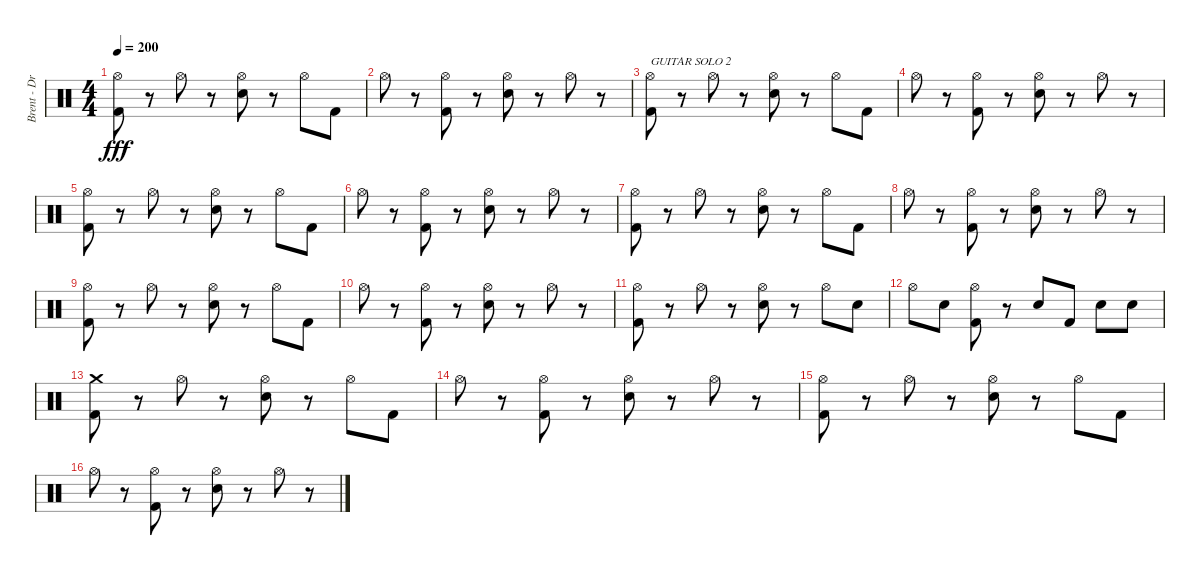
\track ("Brent - Drums" "Brent - Dr") {instrument percussion}
\staff {score}
\articulation defaults
\ts (4 4)
\tempo 200
\clef neutral
\ks c
("Hi-Hat (open)" "Kick (hit) 2").8{dy fff} r.8 "Hi-Hat (open)".8 r.8 ("Hi-Hat (open)" "Snare (hit) 2").8 r.8 "Hi-Hat (open)".8 "Kick (hit) 2".8 |
"Hi-Hat (open)".8 r.8 ("Hi-Hat (open)" "Kick (hit) 2").8 r.8 ("Hi-Hat (open)" "Snare (hit) 2").8 r.8 "Hi-Hat (open)".8 r.8 |
("Hi-Hat (open)" "Kick (hit) 2").8{txt "GUITAR SOLO 2"} r.8 "Hi-Hat (open)".8 r.8 ("Hi-Hat (open)" "Snare (hit) 2").8 r.8 "Hi-Hat (open)".8 "Kick (hit) 2".8 |
"Hi-Hat (open)".8 r.8 ("Hi-Hat (open)" "Kick (hit) 2").8 r.8 ("Hi-Hat (open)" "Snare (hit) 2").8 r.8 "Hi-Hat (open)".8 r.8 |
("Hi-Hat (open)" "Kick (hit) 2").8 r.8 "Hi-Hat (open)".8 r.8 ("Hi-Hat (open)" "Snare (hit) 2").8 r.8 "Hi-Hat (open)".8 "Kick (hit) 2".8 |
"Hi-Hat (open)".8 r.8 ("Hi-Hat (open)" "Kick (hit) 2").8 r.8 ("Hi-Hat (open)" "Snare (hit) 2").8 r.8 "Hi-Hat (open)".8 r.8 |
("Hi-Hat (open)" "Kick (hit) 2").8 r.8 "Hi-Hat (open)".8 r.8 ("Hi-Hat (open)" "Snare (hit) 2").8 r.8 "Hi-Hat (open)".8 "Kick (hit) 2".8 |
"Hi-Hat (open)".8 r.8 ("Hi-Hat (open)" "Kick (hit) 2").8 r.8 ("Hi-Hat (open)" "Snare (hit) 2").8 r.8 "Hi-Hat (open)".8 r.8 |
("Hi-Hat (open)" "Kick (hit) 2").8 r.8 "Hi-Hat (open)".8 r.8 ("Hi-Hat (open)" "Snare (hit) 2").8 r.8 "Hi-Hat (open)".8 "Kick (hit) 2".8 |
"Hi-Hat (open)".8 r.8 ("Hi-Hat (open)" "Kick (hit) 2").8 r.8 ("Hi-Hat (open)" "Snare (hit) 2").8 r.8 "Hi-Hat (open)".8 r.8 |
("Hi-Hat (open)" "Kick (hit) 2").8 r.8 "Hi-Hat (open)".8 r.8 ("Hi-Hat (open)" "Snare (hit) 2").8 r.8 "Hi-Hat (open)".8 "Snare (hit) 2".8 |
"Hi-Hat (open)".8 "Snare (hit) 2".8 ("Hi-Hat (open)" "Kick (hit) 2").8 r.8 "Snare (hit) 2".8 "Kick (hit) 2".8 "Snare (hit) 2".8 "Snare (hit) 2".8 |
("Crash medium (hit)" "Kick (hit) 2").8 r.8 "Hi-Hat (open)".8 r.8 ("Hi-Hat (open)" "Snare (hit) 2").8 r.8 "Hi-Hat (open)".8 "Kick (hit) 2".8 |
"Hi-Hat (open)".8 r.8 ("Hi-Hat (open)" "Kick (hit) 2").8 r.8 ("Hi-Hat (open)" "Snare (hit) 2").8 r.8 "Hi-Hat (open)".8 r.8 |
("Hi-Hat (open)" "Kick (hit) 2").8 r.8 "Hi-Hat (open)".8 r.8 ("Hi-Hat (open)" "Snare (hit) 2").8 r.8 "Hi-Hat (open)".8 "Kick (hit) 2".8 |
"Hi-Hat (open)".8 r.8 ("Hi-Hat (open)" "Kick (hit) 2").8 r.8 ("Hi-Hat (open)" "Snare (hit) 2").8 r.8 "Hi-Hat (open)".8 r.8
